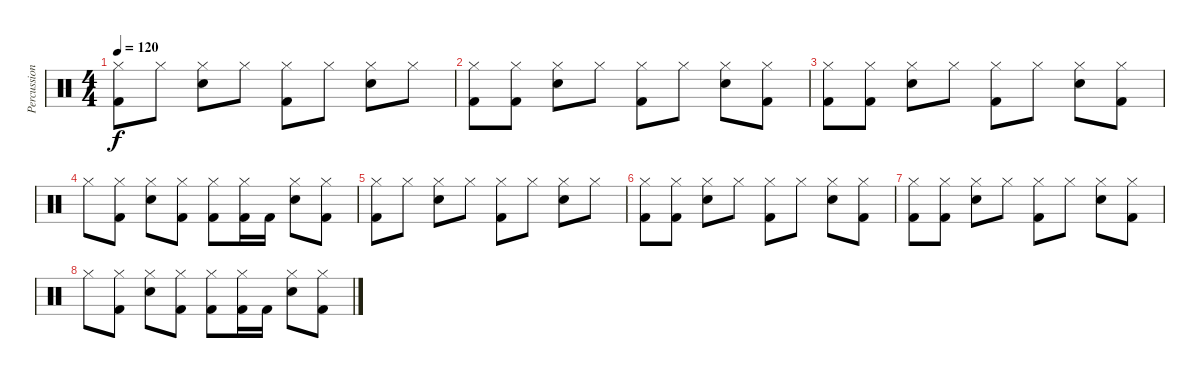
\track ("Percussions" "Percussion") {instrument percussion}
\staff {score}
\articulation defaults
\ts (4 4)
\tempo 120
\clef neutral
\ks c
("Hi-Hat (closed)" "Kick (hit) 2").8{dy f} "Hi-Hat (closed)".8 ("Hi-Hat (closed)" "Snare (hit) 2").8 "Hi-Hat (closed)".8 ("Hi-Hat (closed)" "Kick (hit) 2").8 "Hi-Hat (closed)".8 ("Hi-Hat (closed)" "Snare (hit) 2").8 "Hi-Hat (closed)".8 |
("Hi-Hat (closed)" "Kick (hit) 2").8 ("Hi-Hat (closed)" "Kick (hit) 2").8 ("Hi-Hat (closed)" "Snare (hit) 2").8 "Hi-Hat (closed)".8 ("Hi-Hat (closed)" "Kick (hit) 2").8 "Hi-Hat (closed)".8 ("Hi-Hat (closed)" "Snare (hit) 2").8 ("Hi-Hat (closed)" "Kick (hit) 2").8 |
("Hi-Hat (closed)" "Kick (hit) 2").8 ("Hi-Hat (closed)" "Kick (hit) 2").8 ("Hi-Hat (closed)" "Snare (hit) 2").8 "Hi-Hat (closed)".8 ("Hi-Hat (closed)" "Kick (hit) 2").8 "Hi-Hat (closed)".8 ("Hi-Hat (closed)" "Snare (hit) 2").8 ("Hi-Hat (closed)" "Kick (hit) 2").8 |
"Hi-Hat (closed)".8 ("Hi-Hat (closed)" "Kick (hit) 2").8 ("Hi-Hat (closed)" "Snare (hit) 2").8 ("Hi-Hat (closed)" "Kick (hit) 2").8 ("Hi-Hat (closed)" "Kick (hit) 2").8 ("Hi-Hat (closed)" "Kick (hit) 2").16 "Kick (hit) 2".16 ("Hi-Hat (closed)" "Snare (hit) 2").8 ("Hi-Hat (closed)" "Kick (hit) 2").8 |
("Hi-Hat (closed)" "Kick (hit) 2").8 "Hi-Hat (closed)".8 ("Hi-Hat (closed)" "Snare (hit) 2").8 "Hi-Hat (closed)".8 ("Hi-Hat (closed)" "Kick (hit) 2").8 "Hi-Hat (closed)".8 ("Hi-Hat (closed)" "Snare (hit) 2").8 "Hi-Hat (closed)".8 |
("Hi-Hat (closed)" "Kick (hit) 2").8 ("Hi-Hat (closed)" "Kick (hit) 2").8 ("Hi-Hat (closed)" "Snare (hit) 2").8 "Hi-Hat (closed)".8 ("Hi-Hat (closed)" "Kick (hit) 2").8 "Hi-Hat (closed)".8 ("Hi-Hat (closed)" "Snare (hit) 2").8 ("Hi-Hat (closed)" "Kick (hit) 2").8 |
("Hi-Hat (closed)" "Kick (hit) 2").8 ("Hi-Hat (closed)" "Kick (hit) 2").8 ("Hi-Hat (closed)" "Snare (hit) 2").8 "Hi-Hat (closed)".8 ("Hi-Hat (closed)" "Kick (hit) 2").8 "Hi-Hat (closed)".8 ("Hi-Hat (closed)" "Snare (hit) 2").8 ("Hi-Hat (closed)" "Kick (hit) 2").8 |
"Hi-Hat (closed)".8 ("Hi-Hat (closed)" "Kick (hit) 2").8 ("Hi-Hat (closed)" "Snare (hit) 2").8 ("Hi-Hat (closed)" "Kick (hit) 2").8 ("Hi-Hat (closed)" "Kick (hit) 2").8 ("Hi-Hat (closed)" "Kick (hit) 2").16 "Kick (hit) 2".16 ("Hi-Hat (closed)" "Snare (hit) 2").8 ("Hi-Hat (closed)" "Kick (hit) 2").8
